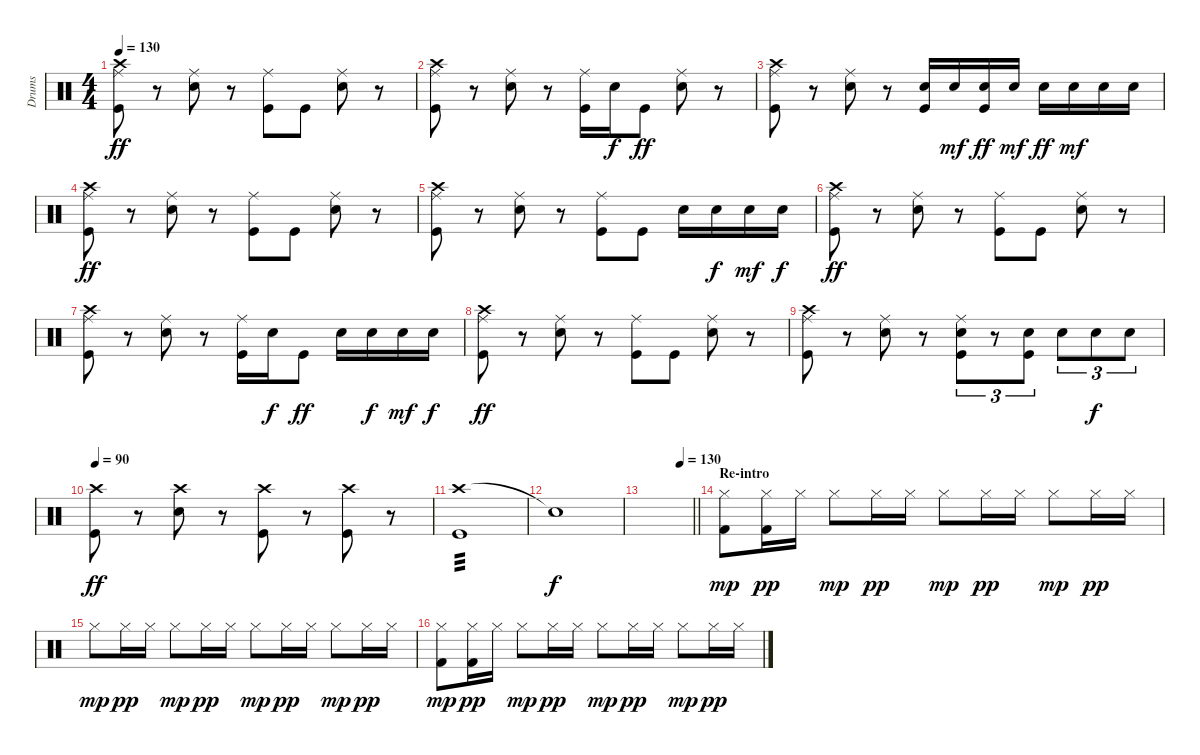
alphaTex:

\track ("Drums" "Drums") {instrument percussion}
\staff {score}
\articulation defaults
\ts (4 4)
\tempo 130
\clef neutral
\ks c
("Crash high (hit)" "Ride (middle)" "Kick (hit)").8{dy ff} r.8 ("Ride (middle)" "Electric Snare (hit)").8 r.8 ("Ride (middle)" "Kick (hit)").8 "Kick (hit)".8 ("Ride (middle)" "Electric Snare (hit)").8 r.8 |
("Crash high (hit)" "Ride (middle)" "Kick (hit)").8 r.8 ("Ride (middle)" "Electric Snare (hit)").8 r.8 ("Ride (middle)" "Kick (hit)").16 "Electric Snare (hit)".16{dy f} "Kick (hit)".8{dy ff} ("Ride (middle)" "Electric Snare (hit)").8 r.8 |
("Crash high (hit)" "Ride (middle)" "Kick (hit)").8 r.8 ("Ride (middle)" "Electric Snare (hit)").8 r.8 ("Electric Snare (hit)" "Kick (hit)").16 "Electric Snare (hit)".16{dy mf} ("Electric Snare (hit)" "Kick (hit)").16{dy ff} "Electric Snare (hit)".16{dy mf} "Electric Snare (hit)".16{dy ff} "Electric Snare (hit)".16{dy mf} "Electric Snare (hit)".16 "Electric Snare (hit)".16 |
("Crash high (hit)" "Ride (middle)" "Kick (hit)").8{dy ff} r.8 ("Ride (middle)" "Electric Snare (hit)").8 r.8 ("Ride (middle)" "Kick (hit)").8 "Kick (hit)".8 ("Ride (middle)" "Electric Snare (hit)").8 r.8 |
("Crash high (hit)" "Ride (middle)" "Kick (hit)").8 r.8 ("Ride (middle)" "Electric Snare (hit)").8 r.8 ("Ride (middle)" "Kick (hit)").8 "Kick (hit)".8 "Electric Snare (hit)".16 "Electric Snare (hit)".16{dy f} "Electric Snare (hit)".16{dy mf} "Electric Snare (hit)".16{dy f} |
("Crash high (hit)" "Ride (middle)" "Kick (hit)").8{dy ff} r.8 ("Ride (middle)" "Electric Snare (hit)").8 r.8 ("Ride (middle)" "Kick (hit)").8 "Kick (hit)".8 ("Ride (middle)" "Electric Snare (hit)").8 r.8 |
("Crash high (hit)" "Ride (middle)" "Kick (hit)").8 r.8 ("Ride (middle)" "Electric Snare (hit)").8 r.8 ("Ride (middle)" "Kick (hit)").16 "Electric Snare (hit)".16{dy f} "Kick (hit)".8{dy ff} "Electric Snare (hit)".16 "Electric Snare (hit)".16{dy f} "Electric Snare (hit)".16{dy mf} "Electric Snare (hit)".16{dy f} |
("Crash high (hit)" "Ride (middle)" "Kick (hit)").8{dy ff} r.8 ("Ride (middle)" "Electric Snare (hit)").8 r.8 ("Ride (middle)" "Kick (hit)").8 "Kick (hit)".8 ("Ride (middle)" "Electric Snare (hit)").8 r.8 |
("Crash high (hit)" "Ride (middle)" "Kick (hit)").8 r.8 ("Ride (middle)" "Electric Snare (hit)").8 r.8 ("Ride (middle)" "Electric Snare (hit)" "Kick (hit)").8{tu (3 2)} r.8{tu (3 2)} ("Electric Snare (hit)" "Kick (hit)").8{tu (3 2)} "Electric Snare (hit)".8{tu (3 2)} "Electric Snare (hit)".8{tu (3 2) dy f} "Electric Snare (hit)".8{tu (3 2)} |
\tempo 90
("Crash high (hit)" "Kick (hit)").8{dy ff} r.8 ("Crash high (hit)" "Electric Snare (hit)").8 r.8 ("Crash high (hit)" "Kick (hit)").8 r.8 ("Crash high (hit)" "Kick (hit)").8 r.8 |
("Crash high (hit)" "Kick (hit)").1{tp 3} |
"Snare (hit)"{t}.1{dy f} |
\tempo (130 0.75)
\barLineRight lightlight
|
\section ("" "Re-intro")
("Hi-Hat (closed)" "Kick (hit) 2").8{dy mp} ("Hi-Hat (closed)" "Kick (hit) 2").16{dy pp} "Hi-Hat (closed)".16 "Hi-Hat (closed)".8{dy mp} "Hi-Hat (closed)".16{dy pp} "Hi-Hat (closed)".16 "Hi-Hat (closed)".8{dy mp} "Hi-Hat (closed)".16{dy pp} "Hi-Hat (closed)".16 "Hi-Hat (closed)".8{dy mp} "Hi-Hat (closed)".16{dy pp} "Hi-Hat (closed)".16 |
"Hi-Hat (closed)".8{dy mp} "Hi-Hat (closed)".16{dy pp} "Hi-Hat (closed)".16 "Hi-Hat (closed)".8{dy mp} "Hi-Hat (closed)".16{dy pp} "Hi-Hat (closed)".16 "Hi-Hat (closed)".8{dy mp} "Hi-Hat (closed)".16{dy pp} "Hi-Hat (closed)".16 "Hi-Hat (closed)".8{dy mp} "Hi-Hat (closed)".16{dy pp} "Hi-Hat (closed)".16 |
("Hi-Hat (closed)" "Kick (hit) 2").8{dy mp} ("Hi-Hat (closed)" "Kick (hit) 2").16{dy pp} "Hi-Hat (closed)".16 "Hi-Hat (closed)".8{dy mp} "Hi-Hat (closed)".16{dy pp} "Hi-Hat (closed)".16 "Hi-Hat (closed)".8{dy mp} "Hi-Hat (closed)".16{dy pp} "Hi-Hat (closed)".16 "Hi-Hat (closed)".8{dy mp} "Hi-Hat (closed)".16{dy pp} "Hi-Hat (closed)".16
